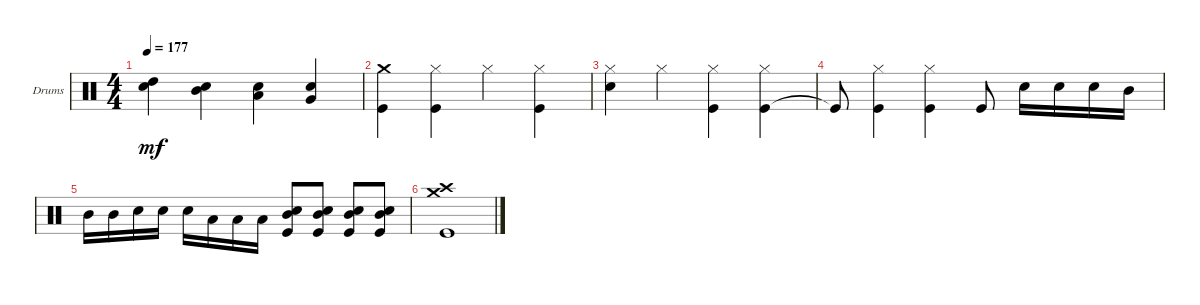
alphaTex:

\defaultSystemsLayout 4
\bracketExtendMode groupsimilarinstruments
\firstSystemTrackNameOrientation horizontal
\otherSystemsTrackNameOrientation horizontal
\track ("Johnny Kelly" "Drums") {instrument percussion}
\staff {score}
\articulation defaults
\ts (4 4)
\tempo 177
\clef neutral
\ks c
("Snare (hit) 2" "High Tom (hit)").4{dy mf} ("Snare (hit) 2" "Mid Tom (hit)").4 ("Snare (hit) 2" "Low Tom (hit)").4 ("Snare (hit) 2" "Very Low Tom (hit)").4 |
("Kick (hit)" "Crash medium (hit)").4 ("Kick (hit)" "Hi-Hat (closed)").4 "Hi-Hat (closed)".4 ("Kick (hit)" "Hi-Hat (closed)").4 |
("Snare (hit) 2" "Hi-Hat (closed)").4 "Hi-Hat (closed)".4 ("Kick (hit)" "Hi-Hat (closed)").4 ("Kick (hit)" "Hi-Hat (closed)").4 |
"Kick (hit)"{t}.8 ("Kick (hit)" "Hi-Hat (closed)").4 ("Kick (hit)" "Hi-Hat (closed)").4 "Kick (hit)".8 "Snare (hit) 2".16 "Snare (hit) 2".16 "Snare (hit) 2".16 "Mid Tom (hit)".16 |
"Mid Tom (hit)".16 "Mid Tom (hit)".16 "Snare (hit) 2".16 "Snare (hit) 2".16 "Snare (hit) 2".16 "Low Tom (hit)".16 "Low Tom (hit)".16 "Low Tom (hit)".16 ("Snare (hit) 2" "Mid Tom (hit)" "Kick (hit)").8 ("Snare (hit) 2" "Mid Tom (hit)" "Kick (hit)").8 ("Snare (hit) 2" "Mid Tom (hit)" "Kick (hit)").8 ("Snare (hit) 2" "Mid Tom (hit)" "Kick (hit)").8 |
("Kick (hit)" "Crash medium (hit)" "Crash high (hit)").1
